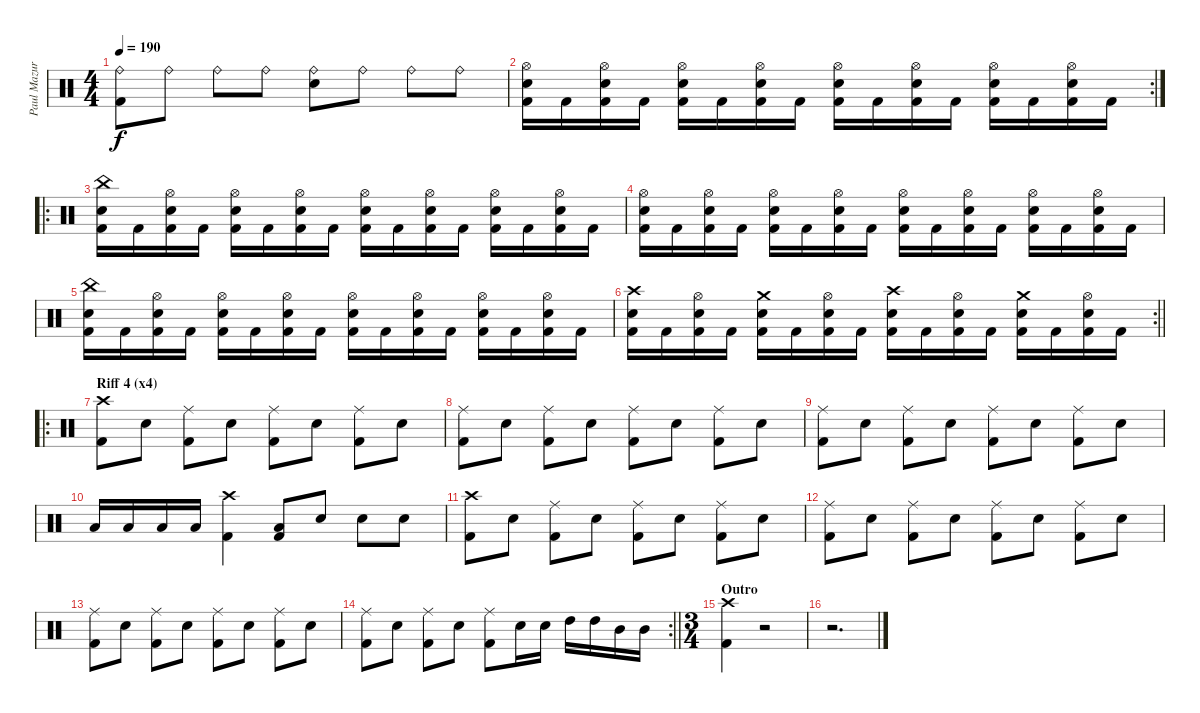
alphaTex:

\track ("Paul Mazurkiewicz" "Paul Mazur") {instrument percussion}
\staff {score}
\articulation defaults
\ts (4 4)
\tempo 190
\clef neutral
\ks c
("Ride (bell)" "Kick (hit) 2").8{dy f} "Ride (bell)".8 "Ride (bell)".8 "Ride (bell)".8 ("Ride (bell)" "Electric Snare (hit)").8 "Ride (bell)".8 "Ride (bell)".8 "Ride (bell)".8 |
\rc 2
("Hi-Hat (open)" "Electric Snare (hit)" "Kick (hit) 2").16 "Kick (hit) 2".16 ("Hi-Hat (open)" "Electric Snare (hit)" "Kick (hit) 2").16 "Kick (hit) 2".16 ("Hi-Hat (open)" "Electric Snare (hit)" "Kick (hit) 2").16 "Kick (hit) 2".16 ("Hi-Hat (open)" "Electric Snare (hit)" "Kick (hit) 2").16 "Kick (hit) 2".16 ("Hi-Hat (open)" "Electric Snare (hit)" "Kick (hit) 2").16 "Kick (hit) 2".16 ("Hi-Hat (open)" "Electric Snare (hit)" "Kick (hit) 2").16 "Kick (hit) 2".16 ("Hi-Hat (open)" "Electric Snare (hit)" "Kick (hit) 2").16 "Kick (hit) 2".16 ("Hi-Hat (open)" "Electric Snare (hit)" "Kick (hit) 2").16 "Kick (hit) 2".16 |
\ro
("China (hit)" "Electric Snare (hit)" "Kick (hit) 2").16 "Kick (hit) 2".16 ("Hi-Hat (open)" "Electric Snare (hit)" "Kick (hit) 2").16 "Kick (hit) 2".16 ("Hi-Hat (open)" "Electric Snare (hit)" "Kick (hit) 2").16 "Kick (hit) 2".16 ("Hi-Hat (open)" "Electric Snare (hit)" "Kick (hit) 2").16 "Kick (hit) 2".16 ("Hi-Hat (open)" "Electric Snare (hit)" "Kick (hit) 2").16 "Kick (hit) 2".16 ("Hi-Hat (open)" "Electric Snare (hit)" "Kick (hit) 2").16 "Kick (hit) 2".16 ("Hi-Hat (open)" "Electric Snare (hit)" "Kick (hit) 2").16 "Kick (hit) 2".16 ("Hi-Hat (open)" "Electric Snare (hit)" "Kick (hit) 2").16 "Kick (hit) 2".16 |
("Hi-Hat (open)" "Electric Snare (hit)" "Kick (hit) 2").16 "Kick (hit) 2".16 ("Hi-Hat (open)" "Electric Snare (hit)" "Kick (hit) 2").16 "Kick (hit) 2".16 ("Hi-Hat (open)" "Electric Snare (hit)" "Kick (hit) 2").16 "Kick (hit) 2".16 ("Hi-Hat (open)" "Electric Snare (hit)" "Kick (hit) 2").16 "Kick (hit) 2".16 ("Hi-Hat (open)" "Electric Snare (hit)" "Kick (hit) 2").16 "Kick (hit) 2".16 ("Hi-Hat (open)" "Electric Snare (hit)" "Kick (hit) 2").16 "Kick (hit) 2".16 ("Hi-Hat (open)" "Electric Snare (hit)" "Kick (hit) 2").16 "Kick (hit) 2".16 ("Hi-Hat (open)" "Electric Snare (hit)" "Kick (hit) 2").16 "Kick (hit) 2".16 |
("China (hit)" "Electric Snare (hit)" "Kick (hit) 2").16 "Kick (hit) 2".16 ("Hi-Hat (open)" "Electric Snare (hit)" "Kick (hit) 2").16 "Kick (hit) 2".16 ("Hi-Hat (open)" "Electric Snare (hit)" "Kick (hit) 2").16 "Kick (hit) 2".16 ("Hi-Hat (open)" "Electric Snare (hit)" "Kick (hit) 2").16 "Kick (hit) 2".16 ("Hi-Hat (open)" "Electric Snare (hit)" "Kick (hit) 2").16 "Kick (hit) 2".16 ("Hi-Hat (open)" "Electric Snare (hit)" "Kick (hit) 2").16 "Kick (hit) 2".16 ("Hi-Hat (open)" "Electric Snare (hit)" "Kick (hit) 2").16 "Kick (hit) 2".16 ("Hi-Hat (open)" "Electric Snare (hit)" "Kick (hit) 2").16 "Kick (hit) 2".16 |
\rc 2
\barLineRight lightlight
("Crash high (hit)" "Electric Snare (hit)" "Kick (hit) 2").16 "Kick (hit) 2".16 ("Hi-Hat (open)" "Electric Snare (hit)" "Kick (hit) 2").16 "Kick (hit) 2".16 ("Crash medium (hit)" "Electric Snare (hit)" "Kick (hit) 2").16 "Kick (hit) 2".16 ("Hi-Hat (open)" "Electric Snare (hit)" "Kick (hit) 2").16 "Kick (hit) 2".16 ("Crash high (hit)" "Electric Snare (hit)" "Kick (hit) 2").16 "Kick (hit) 2".16 ("Hi-Hat (open)" "Electric Snare (hit)" "Kick (hit) 2").16 "Kick (hit) 2".16 ("Crash medium (hit)" "Electric Snare (hit)" "Kick (hit) 2").16 "Kick (hit) 2".16 ("Hi-Hat (open)" "Electric Snare (hit)" "Kick (hit) 2").16 "Kick (hit) 2".16 |
\ro
\section ("" "Riff 4 (x4)")
("Crash high (hit)" "Kick (hit) 2").8 "Electric Snare (hit)".8 ("Ride (middle)" "Kick (hit) 2").8 "Electric Snare (hit)".8 ("Ride (middle)" "Kick (hit) 2").8 "Electric Snare (hit)".8 ("Ride (middle)" "Kick (hit) 2").8 "Electric Snare (hit)".8 |
("Ride (middle)" "Kick (hit) 2").8 "Electric Snare (hit)".8 ("Ride (middle)" "Kick (hit) 2").8 "Electric Snare (hit)".8 ("Ride (middle)" "Kick (hit) 2").8 "Electric Snare (hit)".8 ("Ride (middle)" "Kick (hit) 2").8 "Electric Snare (hit)".8 |
("Ride (middle)" "Kick (hit) 2").8 "Electric Snare (hit)".8 ("Ride (middle)" "Kick (hit) 2").8 "Electric Snare (hit)".8 ("Ride (middle)" "Kick (hit) 2").8 "Electric Snare (hit)".8 ("Ride (middle)" "Kick (hit) 2").8 "Electric Snare (hit)".8 |
"Low Tom (hit)".16 "Low Tom (hit)".16 "Low Tom (hit)".16 "Low Tom (hit)".16 ("Crash high (hit)" "Kick (hit) 2").4 ("Low Tom (hit)" "Kick (hit) 2").8 "Electric Snare (hit)".8 "Electric Snare (hit)".8 "Electric Snare (hit)".8 |
("Crash high (hit)" "Kick (hit) 2").8 "Electric Snare (hit)".8 ("Ride (middle)" "Kick (hit) 2").8 "Electric Snare (hit)".8 ("Ride (middle)" "Kick (hit) 2").8 "Electric Snare (hit)".8 ("Ride (middle)" "Kick (hit) 2").8 "Electric Snare (hit)".8 |
("Ride (middle)" "Kick (hit) 2").8 "Electric Snare (hit)".8 ("Ride (middle)" "Kick (hit) 2").8 "Electric Snare (hit)".8 ("Ride (middle)" "Kick (hit) 2").8 "Electric Snare (hit)".8 ("Ride (middle)" "Kick (hit) 2").8 "Electric Snare (hit)".8 |
("Ride (middle)" "Kick (hit) 2").8 "Electric Snare (hit)".8 ("Ride (middle)" "Kick (hit) 2").8 "Electric Snare (hit)".8 ("Ride (middle)" "Kick (hit) 2").8 "Electric Snare (hit)".8 ("Ride (middle)" "Kick (hit) 2").8 "Electric Snare (hit)".8 |
\rc 2
\barLineRight lightlight
("Ride (middle)" "Kick (hit) 2").8 "Electric Snare (hit)".8 ("Ride (middle)" "Kick (hit) 2").8 "Electric Snare (hit)".8 ("Ride (middle)" "Kick (hit) 2").8 "Electric Snare (hit)".16 "Electric Snare (hit)".16 "High Tom (hit)".16 "High Tom (hit)".16 "Mid Tom (hit)".16 "Mid Tom (hit)".16 |
\ts (3 4)
\section ("" "Outro")
("Crash high (hit)" "Kick (hit) 2").4 r.2 |
r.2{d}
